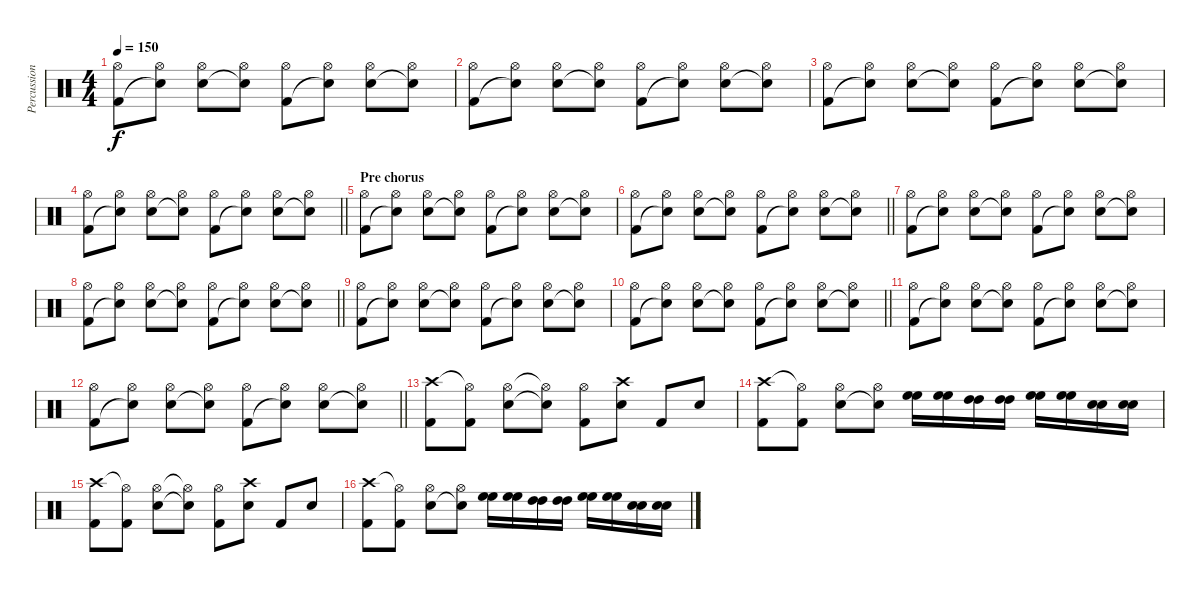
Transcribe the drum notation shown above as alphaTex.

\track ("Percussion" "Percussion") {instrument percussion}
\staff {score}
\articulation defaults
\ts (4 4)
\tempo 150
\clef neutral
\ks c
("Hi-Hat (open)" "Kick (hit) 2").8{dy f} ("Hi-Hat (open)" "Snare (hit)"{t}).8 ("Hi-Hat (open)" "Snare (hit) 2").8 ("Hi-Hat (open)" "Snare (hit)"{t}).8 ("Hi-Hat (open)" "Kick (hit) 2").8 ("Hi-Hat (open)" "Snare (hit)"{t}).8 ("Hi-Hat (open)" "Snare (hit) 2").8 ("Hi-Hat (open)" "Snare (hit)"{t}).8 |
("Hi-Hat (open)" "Kick (hit) 2").8 ("Hi-Hat (open)" "Snare (hit)"{t}).8 ("Hi-Hat (open)" "Snare (hit) 2").8 ("Hi-Hat (open)" "Snare (hit)"{t}).8 ("Hi-Hat (open)" "Kick (hit) 2").8 ("Hi-Hat (open)" "Snare (hit)"{t}).8 ("Hi-Hat (open)" "Snare (hit) 2").8 ("Hi-Hat (open)" "Snare (hit)"{t}).8 |
("Hi-Hat (open)" "Kick (hit) 2").8 ("Hi-Hat (open)" "Snare (hit)"{t}).8 ("Hi-Hat (open)" "Snare (hit) 2").8 ("Hi-Hat (open)" "Snare (hit)"{t}).8 ("Hi-Hat (open)" "Kick (hit) 2").8 ("Hi-Hat (open)" "Snare (hit)"{t}).8 ("Hi-Hat (open)" "Snare (hit) 2").8 ("Hi-Hat (open)" "Snare (hit)"{t}).8 |
\barLineRight lightlight
("Hi-Hat (open)" "Kick (hit) 2").8 ("Hi-Hat (open)" "Snare (hit)"{t}).8 ("Hi-Hat (open)" "Snare (hit) 2").8 ("Hi-Hat (open)" "Snare (hit)"{t}).8 ("Hi-Hat (open)" "Kick (hit) 2").8 ("Hi-Hat (open)" "Snare (hit)"{t}).8 ("Hi-Hat (open)" "Snare (hit) 2").8 ("Hi-Hat (open)" "Snare (hit)"{t}).8 |
\section ("" "Pre chorus")
("Hi-Hat (open)" "Kick (hit) 2").8 ("Hi-Hat (open)" "Snare (hit)"{t}).8 ("Hi-Hat (open)" "Snare (hit) 2").8 ("Hi-Hat (open)" "Snare (hit)"{t}).8 ("Hi-Hat (open)" "Kick (hit) 2").8 ("Hi-Hat (open)" "Snare (hit)"{t}).8 ("Hi-Hat (open)" "Snare (hit) 2").8 ("Hi-Hat (open)" "Snare (hit)"{t}).8 |
\barLineRight lightlight
("Hi-Hat (open)" "Kick (hit) 2").8 ("Hi-Hat (open)" "Snare (hit)"{t}).8 ("Hi-Hat (open)" "Snare (hit) 2").8 ("Hi-Hat (open)" "Snare (hit)"{t}).8 ("Hi-Hat (open)" "Kick (hit) 2").8 ("Hi-Hat (open)" "Snare (hit)"{t}).8 ("Hi-Hat (open)" "Snare (hit) 2").8 ("Hi-Hat (open)" "Snare (hit)"{t}).8 |
("Hi-Hat (open)" "Kick (hit) 2").8 ("Hi-Hat (open)" "Snare (hit)"{t}).8 ("Hi-Hat (open)" "Snare (hit) 2").8 ("Hi-Hat (open)" "Snare (hit)"{t}).8 ("Hi-Hat (open)" "Kick (hit) 2").8 ("Hi-Hat (open)" "Snare (hit)"{t}).8 ("Hi-Hat (open)" "Snare (hit) 2").8 ("Hi-Hat (open)" "Snare (hit)"{t}).8 |
\barLineRight lightlight
("Hi-Hat (open)" "Kick (hit) 2").8 ("Hi-Hat (open)" "Snare (hit)"{t}).8 ("Hi-Hat (open)" "Snare (hit) 2").8 ("Hi-Hat (open)" "Snare (hit)"{t}).8 ("Hi-Hat (open)" "Kick (hit) 2").8 ("Hi-Hat (open)" "Snare (hit)"{t}).8 ("Hi-Hat (open)" "Snare (hit) 2").8 ("Hi-Hat (open)" "Snare (hit)"{t}).8 |
("Hi-Hat (open)" "Kick (hit) 2").8 ("Hi-Hat (open)" "Snare (hit)"{t}).8 ("Hi-Hat (open)" "Snare (hit) 2").8 ("Hi-Hat (open)" "Snare (hit)"{t}).8 ("Hi-Hat (open)" "Kick (hit) 2").8 ("Hi-Hat (open)" "Snare (hit)"{t}).8 ("Hi-Hat (open)" "Snare (hit) 2").8 ("Hi-Hat (open)" "Snare (hit)"{t}).8 |
\barLineRight lightlight
("Hi-Hat (open)" "Kick (hit) 2").8 ("Hi-Hat (open)" "Snare (hit)"{t}).8 ("Hi-Hat (open)" "Snare (hit) 2").8 ("Hi-Hat (open)" "Snare (hit)"{t}).8 ("Hi-Hat (open)" "Kick (hit) 2").8 ("Hi-Hat (open)" "Snare (hit)"{t}).8 ("Hi-Hat (open)" "Snare (hit) 2").8 ("Hi-Hat (open)" "Snare (hit)"{t}).8 |
("Hi-Hat (open)" "Kick (hit) 2").8 ("Hi-Hat (open)" "Snare (hit)"{t}).8 ("Hi-Hat (open)" "Snare (hit) 2").8 ("Hi-Hat (open)" "Snare (hit)"{t}).8 ("Hi-Hat (open)" "Kick (hit) 2").8 ("Hi-Hat (open)" "Snare (hit)"{t}).8 ("Hi-Hat (open)" "Snare (hit) 2").8 ("Hi-Hat (open)" "Snare (hit)"{t}).8 |
\barLineRight lightlight
("Hi-Hat (open)" "Kick (hit) 2").8 ("Hi-Hat (open)" "Snare (hit)"{t}).8 ("Hi-Hat (open)" "Snare (hit) 2").8 ("Hi-Hat (open)" "Snare (hit)"{t}).8 ("Hi-Hat (open)" "Kick (hit) 2").8 ("Hi-Hat (open)" "Snare (hit)"{t}).8 ("Hi-Hat (open)" "Snare (hit) 2").8 ("Hi-Hat (open)" "Snare (hit)"{t}).8 |
("Crash high (hit)" "Kick (hit) 2").8 ("Hi-Hat (open)"{t} "Kick (hit) 2").8 ("Hi-Hat (open)" "Snare (hit) 2").8 ("Hi-Hat (open)"{t} "Snare (hit) 2"{t}).8 ("Hi-Hat (open)" "Kick (hit) 2").8 ("Crash high (hit)" "Snare (hit) 2").8 "Kick (hit) 2".8 "Snare (hit) 2".8 |
("Crash high (hit)" "Kick (hit) 2").8 ("Hi-Hat (open)"{t} "Kick (hit) 2").8 ("Hi-Hat (open)" "Snare (hit) 2").8 ("Hi-Hat (open)" "Snare (hit) 2"{t}).8 ("High Floor Tom (hit)" "High Floor Tom (hit)").16 ("High Floor Tom (hit)" "High Floor Tom (hit)").16 ("High Tom (hit)" "High Tom (hit)").16 ("High Tom (hit)" "High Tom (hit)").16 ("High Floor Tom (hit)" "High Floor Tom (hit)").16 ("High Floor Tom (hit)" "High Floor Tom (hit)").16 ("Snare (hit) 2" "Snare (hit) 2").16 ("Snare (hit) 2" "Snare (hit) 2").16 |
("Crash high (hit)" "Kick (hit) 2").8 ("Hi-Hat (open)"{t} "Kick (hit) 2").8 ("Hi-Hat (open)" "Snare (hit) 2").8 ("Hi-Hat (open)"{t} "Snare (hit) 2"{t}).8 ("Hi-Hat (open)" "Kick (hit) 2").8 ("Crash high (hit)" "Snare (hit) 2").8 "Kick (hit) 2".8 "Snare (hit) 2".8 |
("Crash high (hit)" "Kick (hit) 2").8 ("Hi-Hat (open)"{t} "Kick (hit) 2").8 ("Hi-Hat (open)" "Snare (hit) 2").8 ("Hi-Hat (open)" "Snare (hit) 2"{t}).8 ("High Floor Tom (hit)" "High Floor Tom (hit)").16 ("High Floor Tom (hit)" "High Floor Tom (hit)").16 ("High Tom (hit)" "High Tom (hit)").16 ("High Tom (hit)" "High Tom (hit)").16 ("High Floor Tom (hit)" "High Floor Tom (hit)").16 ("High Floor Tom (hit)" "High Floor Tom (hit)").16 ("Snare (hit) 2" "Snare (hit) 2").16 ("Snare (hit) 2" "Snare (hit) 2").16
